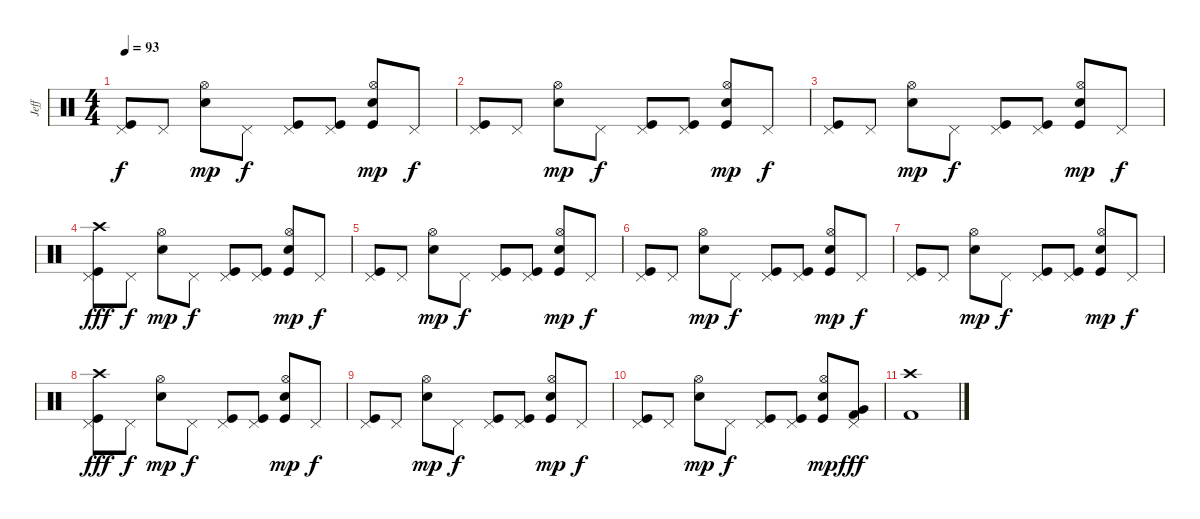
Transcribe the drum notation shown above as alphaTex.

\track ("Jeff" "Jeff") {instrument percussion}
\staff {score}
\articulation defaults
\ts (4 4)
\tempo 93
\clef neutral
\ks c
("Pedal Hi-Hat (hit)" "Kick (hit)").8{dy f} "Pedal Hi-Hat (hit)".8 ("Hi-Hat (open)" "Snare (hit) 2").8{dy mp} "Pedal Hi-Hat (hit)".8{dy f} ("Pedal Hi-Hat (hit)" "Kick (hit)").8 ("Pedal Hi-Hat (hit)" "Kick (hit)").8 ("Hi-Hat (open)" "Snare (hit) 2" "Kick (hit)").8{dy mp} "Pedal Hi-Hat (hit)".8{dy f} |
("Pedal Hi-Hat (hit)" "Kick (hit)").8 "Pedal Hi-Hat (hit)".8 ("Hi-Hat (open)" "Snare (hit) 2").8{dy mp} "Pedal Hi-Hat (hit)".8{dy f} ("Pedal Hi-Hat (hit)" "Kick (hit)").8 ("Pedal Hi-Hat (hit)" "Kick (hit)").8 ("Hi-Hat (open)" "Snare (hit) 2" "Kick (hit)").8{dy mp} "Pedal Hi-Hat (hit)".8{dy f} |
("Pedal Hi-Hat (hit)" "Kick (hit)").8 "Pedal Hi-Hat (hit)".8 ("Hi-Hat (open)" "Snare (hit) 2").8{dy mp} "Pedal Hi-Hat (hit)".8{dy f} ("Pedal Hi-Hat (hit)" "Kick (hit)").8 ("Pedal Hi-Hat (hit)" "Kick (hit)").8 ("Hi-Hat (open)" "Snare (hit) 2" "Kick (hit)").8{dy mp} "Pedal Hi-Hat (hit)".8{dy f} |
("Pedal Hi-Hat (hit)" "Crash high (hit)" "Kick (hit)").8{dy fff} "Pedal Hi-Hat (hit)".8{dy f} ("Hi-Hat (open)" "Snare (hit) 2").8{dy mp} "Pedal Hi-Hat (hit)".8{dy f} ("Pedal Hi-Hat (hit)" "Kick (hit)").8 ("Pedal Hi-Hat (hit)" "Kick (hit)").8 ("Hi-Hat (open)" "Snare (hit) 2" "Kick (hit)").8{dy mp} "Pedal Hi-Hat (hit)".8{dy f} |
("Pedal Hi-Hat (hit)" "Kick (hit)").8 "Pedal Hi-Hat (hit)".8 ("Hi-Hat (open)" "Snare (hit) 2").8{dy mp} "Pedal Hi-Hat (hit)".8{dy f} ("Pedal Hi-Hat (hit)" "Kick (hit)").8 ("Pedal Hi-Hat (hit)" "Kick (hit)").8 ("Hi-Hat (open)" "Snare (hit) 2" "Kick (hit)").8{dy mp} "Pedal Hi-Hat (hit)".8{dy f} |
("Pedal Hi-Hat (hit)" "Kick (hit)").8 "Pedal Hi-Hat (hit)".8 ("Hi-Hat (open)" "Snare (hit) 2").8{dy mp} "Pedal Hi-Hat (hit)".8{dy f} ("Pedal Hi-Hat (hit)" "Kick (hit)").8 ("Pedal Hi-Hat (hit)" "Kick (hit)").8 ("Hi-Hat (open)" "Snare (hit) 2" "Kick (hit)").8{dy mp} "Pedal Hi-Hat (hit)".8{dy f} |
("Pedal Hi-Hat (hit)" "Kick (hit)").8 "Pedal Hi-Hat (hit)".8 ("Hi-Hat (open)" "Snare (hit) 2").8{dy mp} "Pedal Hi-Hat (hit)".8{dy f} ("Pedal Hi-Hat (hit)" "Kick (hit)").8 ("Pedal Hi-Hat (hit)" "Kick (hit)").8 ("Hi-Hat (open)" "Snare (hit) 2" "Kick (hit)").8{dy mp} "Pedal Hi-Hat (hit)".8{dy f} |
("Pedal Hi-Hat (hit)" "Crash high (hit)" "Kick (hit)").8{dy fff} "Pedal Hi-Hat (hit)".8{dy f} ("Hi-Hat (open)" "Snare (hit) 2").8{dy mp} "Pedal Hi-Hat (hit)".8{dy f} ("Pedal Hi-Hat (hit)" "Kick (hit)").8 ("Pedal Hi-Hat (hit)" "Kick (hit)").8 ("Hi-Hat (open)" "Snare (hit) 2" "Kick (hit)").8{dy mp} "Pedal Hi-Hat (hit)".8{dy f} |
("Pedal Hi-Hat (hit)" "Kick (hit)").8 "Pedal Hi-Hat (hit)".8 ("Hi-Hat (open)" "Snare (hit) 2").8{dy mp} "Pedal Hi-Hat (hit)".8{dy f} ("Pedal Hi-Hat (hit)" "Kick (hit)").8 ("Pedal Hi-Hat (hit)" "Kick (hit)").8 ("Hi-Hat (open)" "Snare (hit) 2" "Kick (hit)").8{dy mp} "Pedal Hi-Hat (hit)".8{dy f} |
("Pedal Hi-Hat (hit)" "Kick (hit)").8 "Pedal Hi-Hat (hit)".8 ("Hi-Hat (open)" "Snare (hit) 2").8{dy mp} "Pedal Hi-Hat (hit)".8{dy f} ("Pedal Hi-Hat (hit)" "Kick (hit)").8 ("Pedal Hi-Hat (hit)" "Kick (hit)").8 ("Hi-Hat (open)" "Snare (hit) 2" "Kick (hit)").8{dy mp} ("Very Low Tom (hit)" "Pedal Hi-Hat (hit)" "Kick (hit) 2").8{dy fff} |
("Kick (hit) 2" "Crash high (hit)").1
